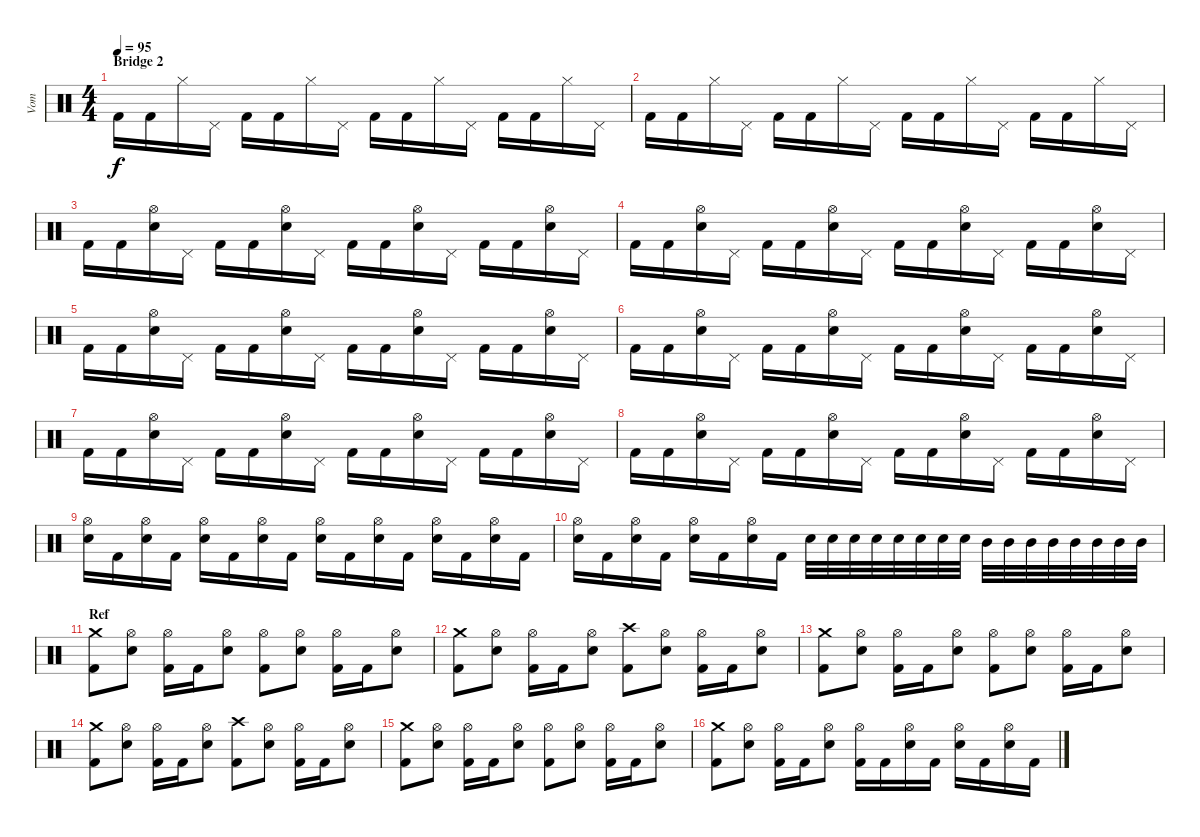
\track ("Vom" "Vom") {instrument percussion}
\staff {score}
\articulation defaults
\ts (4 4)
\section ("" "Bridge 2")
\tempo 95
\clef neutral
\ks c "Kick (hit) 2".16{dy f} "Kick (hit) 2".16 "Hi-Hat (closed)".16 "Pedal Hi-Hat (hit)".16 "Kick (hit) 2".16 "Kick (hit) 2".16 "Hi-Hat (closed)".16 "Pedal Hi-Hat (hit)".16 "Kick (hit) 2".16 "Kick (hit) 2".16 "Hi-Hat (closed)".16 "Pedal Hi-Hat (hit)".16 "Kick (hit) 2".16 "Kick (hit) 2".16 "Hi-Hat (closed)".16 "Pedal Hi-Hat (hit)".16
|
"Kick (hit) 2".16 "Kick (hit) 2".16 "Hi-Hat (closed)".16 "Pedal Hi-Hat (hit)".16 "Kick (hit) 2".16 "Kick (hit) 2".16 "Hi-Hat (closed)".16 "Pedal Hi-Hat (hit)".16 "Kick (hit) 2".16 "Kick (hit) 2".16 "Hi-Hat (closed)".16 "Pedal Hi-Hat (hit)".16 "Kick (hit) 2".16 "Kick (hit) 2".16 "Hi-Hat (closed)".16 "Pedal Hi-Hat (hit)".16 |
"Kick (hit) 2".16 "Kick (hit) 2".16 ("Hi-Hat (open)" "Snare (hit) 2").16 "Pedal Hi-Hat (hit)".16 "Kick (hit) 2".16 "Kick (hit) 2".16 ("Hi-Hat (open)" "Snare (hit) 2").16 "Pedal Hi-Hat (hit)".16 "Kick (hit) 2".16 "Kick (hit) 2".16 ("Hi-Hat (open)" "Snare (hit) 2").16 "Pedal Hi-Hat (hit)".16 "Kick (hit) 2".16 "Kick (hit) 2".16 ("Hi-Hat (open)" "Snare (hit) 2").16 "Pedal Hi-Hat (hit)".16 |
"Kick (hit) 2".16 "Kick (hit) 2".16 ("Hi-Hat (open)" "Snare (hit) 2").16 "Pedal Hi-Hat (hit)".16 "Kick (hit) 2".16 "Kick (hit) 2".16 ("Hi-Hat (open)" "Snare (hit) 2").16 "Pedal Hi-Hat (hit)".16 "Kick (hit) 2".16 "Kick (hit) 2".16 ("Hi-Hat (open)" "Snare (hit) 2").16 "Pedal Hi-Hat (hit)".16 "Kick (hit) 2".16 "Kick (hit) 2".16 ("Hi-Hat (open)" "Snare (hit) 2").16 "Pedal Hi-Hat (hit)".16 |
"Kick (hit) 2".16 "Kick (hit) 2".16 ("Hi-Hat (open)" "Snare (hit) 2").16 "Pedal Hi-Hat (hit)".16 "Kick (hit) 2".16 "Kick (hit) 2".16 ("Hi-Hat (open)" "Snare (hit) 2").16 "Pedal Hi-Hat (hit)".16 "Kick (hit) 2".16 "Kick (hit) 2".16 ("Hi-Hat (open)" "Snare (hit) 2").16 "Pedal Hi-Hat (hit)".16 "Kick (hit) 2".16 "Kick (hit) 2".16 ("Hi-Hat (open)" "Snare (hit) 2").16 "Pedal Hi-Hat (hit)".16 |
"Kick (hit) 2".16 "Kick (hit) 2".16 ("Hi-Hat (open)" "Snare (hit) 2").16 "Pedal Hi-Hat (hit)".16 "Kick (hit) 2".16 "Kick (hit) 2".16 ("Hi-Hat (open)" "Snare (hit) 2").16 "Pedal Hi-Hat (hit)".16 "Kick (hit) 2".16 "Kick (hit) 2".16 ("Hi-Hat (open)" "Snare (hit) 2").16 "Pedal Hi-Hat (hit)".16 "Kick (hit) 2".16 "Kick (hit) 2".16 ("Hi-Hat (open)" "Snare (hit) 2").16 "Pedal Hi-Hat (hit)".16 |
"Kick (hit) 2".16 "Kick (hit) 2".16 ("Hi-Hat (open)" "Snare (hit) 2").16 "Pedal Hi-Hat (hit)".16 "Kick (hit) 2".16 "Kick (hit) 2".16 ("Hi-Hat (open)" "Snare (hit) 2").16 "Pedal Hi-Hat (hit)".16 "Kick (hit) 2".16 "Kick (hit) 2".16 ("Hi-Hat (open)" "Snare (hit) 2").16 "Pedal Hi-Hat (hit)".16 "Kick (hit) 2".16 "Kick (hit) 2".16 ("Hi-Hat (open)" "Snare (hit) 2").16 "Pedal Hi-Hat (hit)".16 |
"Kick (hit) 2".16 "Kick (hit) 2".16 ("Hi-Hat (open)" "Snare (hit) 2").16 "Pedal Hi-Hat (hit)".16 "Kick (hit) 2".16 "Kick (hit) 2".16 ("Hi-Hat (open)" "Snare (hit) 2").16 "Pedal Hi-Hat (hit)".16 "Kick (hit) 2".16 "Kick (hit) 2".16 ("Hi-Hat (open)" "Snare (hit) 2").16 "Pedal Hi-Hat (hit)".16 "Kick (hit) 2".16 "Kick (hit) 2".16 ("Hi-Hat (open)" "Snare (hit) 2").16 "Pedal Hi-Hat (hit)".16 |
("Hi-Hat (open)" "Snare (hit) 2").16 "Kick (hit) 2".16 ("Hi-Hat (open)" "Snare (hit) 2").16 "Kick (hit) 2".16 ("Hi-Hat (open)" "Snare (hit) 2").16 "Kick (hit) 2".16 ("Hi-Hat (open)" "Snare (hit) 2").16 "Kick (hit) 2".16 ("Hi-Hat (open)" "Snare (hit) 2").16 "Kick (hit) 2".16 ("Hi-Hat (open)" "Snare (hit) 2").16 "Kick (hit) 2".16 ("Hi-Hat (open)" "Snare (hit) 2").16 "Kick (hit) 2".16 ("Hi-Hat (open)" "Snare (hit) 2").16 "Kick (hit) 2".16 |
("Hi-Hat (open)" "Snare (hit) 2").16 "Kick (hit) 2".16 ("Hi-Hat (open)" "Snare (hit) 2").16 "Kick (hit) 2".16 ("Hi-Hat (open)" "Snare (hit) 2").16 "Kick (hit) 2".16 ("Hi-Hat (open)" "Snare (hit) 2").16 "Kick (hit) 2".16 "Snare (hit) 2".32 "Snare (hit) 2".32 "Snare (hit) 2".32 "Snare (hit) 2".32 "Snare (hit) 2".32 "Snare (hit) 2".32 "Snare (hit) 2".32 "Snare (hit) 2".32 "Mid Tom (hit)".32 "Mid Tom (hit)".32 "Mid Tom (hit)".32 "Mid Tom (hit)".32 "Mid Tom (hit)".32 "Mid Tom (hit)".32 "Mid Tom (hit)".32 "Mid Tom (hit)".32 |
\section ("" "Ref")
("Crash medium (hit)" "Kick (hit) 2").8 ("Hi-Hat (open)" "Snare (hit) 2").8 ("Hi-Hat (open)" "Kick (hit) 2").16 "Kick (hit) 2".16 ("Hi-Hat (open)" "Snare (hit) 2").8 ("Hi-Hat (open)" "Kick (hit) 2").8 ("Hi-Hat (open)" "Snare (hit) 2").8 ("Hi-Hat (open)" "Kick (hit) 2").16 "Kick (hit) 2".16 ("Hi-Hat (open)" "Snare (hit) 2").8 |
("Crash medium (hit)" "Kick (hit) 2").8 ("Hi-Hat (open)" "Snare (hit) 2").8 ("Hi-Hat (open)" "Kick (hit) 2").16 "Kick (hit) 2".16 ("Hi-Hat (open)" "Snare (hit) 2").8 ("Crash high (hit)" "Kick (hit) 2").8 ("Hi-Hat (open)" "Snare (hit) 2").8 ("Hi-Hat (open)" "Kick (hit) 2").16 "Kick (hit) 2".16 ("Hi-Hat (open)" "Snare (hit) 2").8 |
("Crash medium (hit)" "Kick (hit) 2").8 ("Hi-Hat (open)" "Snare (hit) 2").8 ("Hi-Hat (open)" "Kick (hit) 2").16 "Kick (hit) 2".16 ("Hi-Hat (open)" "Snare (hit) 2").8 ("Hi-Hat (open)" "Kick (hit) 2").8 ("Hi-Hat (open)" "Snare (hit) 2").8 ("Hi-Hat (open)" "Kick (hit) 2").16 "Kick (hit) 2".16 ("Hi-Hat (open)" "Snare (hit) 2").8 |
("Crash medium (hit)" "Kick (hit) 2").8 ("Hi-Hat (open)" "Snare (hit) 2").8 ("Hi-Hat (open)" "Kick (hit) 2").16 "Kick (hit) 2".16 ("Hi-Hat (open)" "Snare (hit) 2").8 ("Crash high (hit)" "Kick (hit) 2").8 ("Hi-Hat (open)" "Snare (hit) 2").8 ("Hi-Hat (open)" "Kick (hit) 2").16 "Kick (hit) 2".16 ("Hi-Hat (open)" "Snare (hit) 2").8 |
("Crash medium (hit)" "Kick (hit) 2").8 ("Hi-Hat (open)" "Snare (hit) 2").8 ("Hi-Hat (open)" "Kick (hit) 2").16 "Kick (hit) 2".16 ("Hi-Hat (open)" "Snare (hit) 2").8 ("Hi-Hat (open)" "Kick (hit) 2").8 ("Hi-Hat (open)" "Snare (hit) 2").8 ("Hi-Hat (open)" "Kick (hit) 2").16 "Kick (hit) 2".16 ("Hi-Hat (open)" "Snare (hit) 2").8 |
("Crash medium (hit)" "Kick (hit) 2").8 ("Hi-Hat (open)" "Snare (hit) 2").8 ("Hi-Hat (open)" "Kick (hit) 2").16 "Kick (hit) 2".16 ("Hi-Hat (open)" "Snare (hit) 2").8 ("Hi-Hat (open)" "Kick (hit) 2").16 "Kick (hit) 2".16 ("Hi-Hat (open)" "Snare (hit) 2").16 "Kick (hit) 2".16 ("Hi-Hat (open)" "Snare (hit) 2").16 "Kick (hit) 2".16 ("Hi-Hat (open)" "Snare (hit) 2").16 "Kick (hit) 2".16
